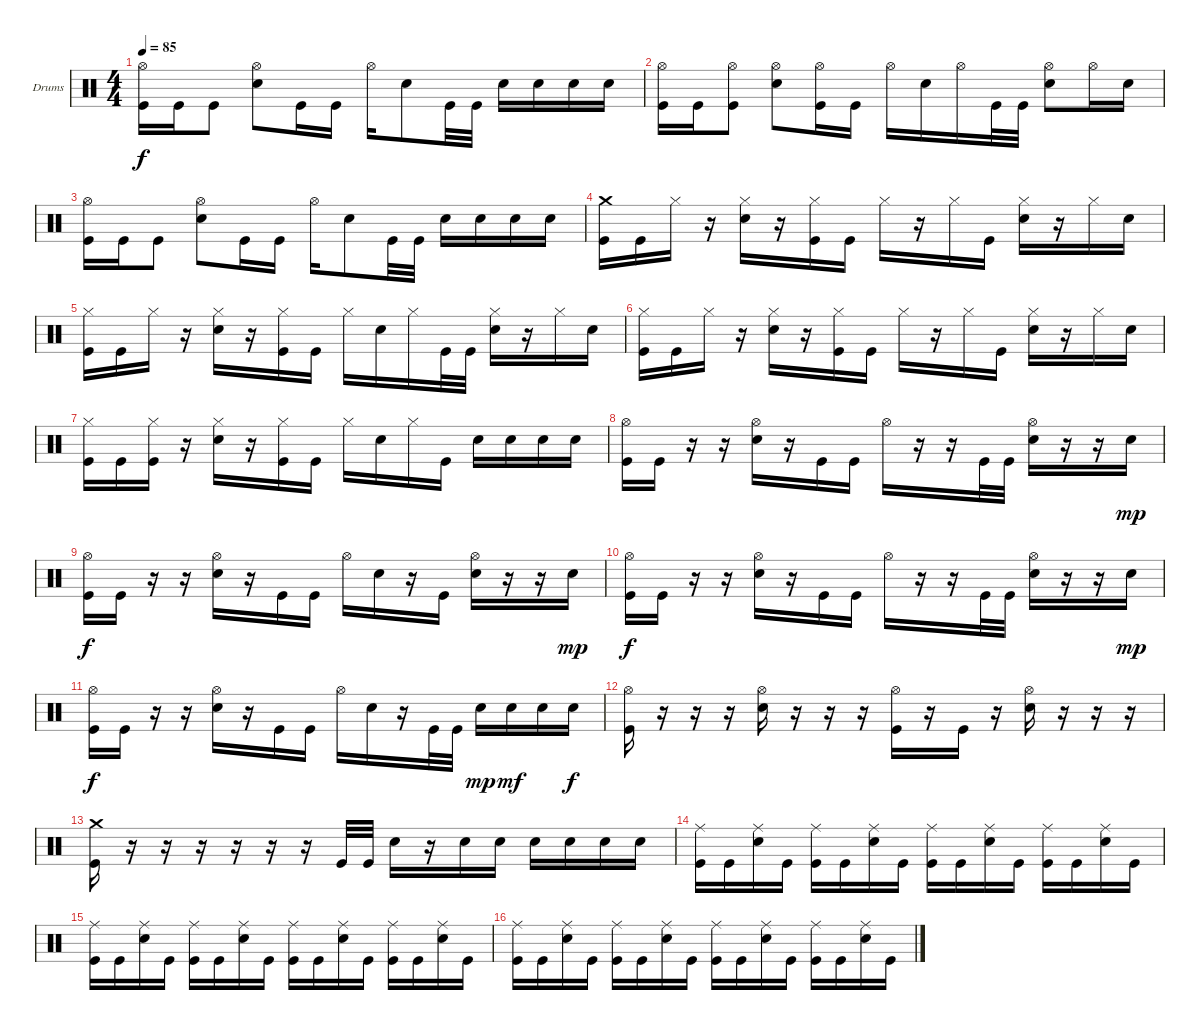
\defaultSystemsLayout 4
\bracketExtendMode groupsimilarinstruments
\firstSystemTrackNameOrientation horizontal
\otherSystemsTrackNameOrientation horizontal
\track ("Drumkit" "Drums") {instrument percussion}
\staff {score}
\articulation defaults
\ts (4 4)
\tempo 85
\clef neutral
\scale
0.333333
\ks c
("Hi-Hat (open)" "Kick (hit)").16{dy f} "Kick (hit)".16 "Kick (hit)".8 ("Hi-Hat (open)" "Snare (hit) 2").8 "Kick (hit)".16 "Kick (hit)".16 "Hi-Hat (open)".16 "Snare (hit) 2".8 "Kick (hit)".32 "Kick (hit)".32 "Snare (hit) 2".16 "Snare (hit) 2".16 "Snare (hit) 2".16 "Snare (hit) 2".16 |
\scale
0.333333 ("Hi-Hat (open)" "Kick (hit)").16 "Kick (hit)".16 ("Hi-Hat (open)" "Kick (hit)").8 ("Hi-Hat (open)" "Snare (hit) 2").8 ("Hi-Hat (open)" "Kick (hit)").16 "Kick (hit)".16 "Hi-Hat (open)".16 "Snare (hit) 2".16 "Hi-Hat (open)".16 "Kick (hit)".32 "Kick (hit)".32 ("Hi-Hat (open)" "Snare (hit) 2").8 "Hi-Hat (open)".16 "Snare (hit) 2".16 |
\scale
0.333333 ("Hi-Hat (open)" "Kick (hit)").16 "Kick (hit)".16 "Kick (hit)".8 ("Hi-Hat (open)" "Snare (hit) 2").8 "Kick (hit)".16 "Kick (hit)".16 "Hi-Hat (open)".16 "Snare (hit) 2".8 "Kick (hit)".32 "Kick (hit)".32 "Snare (hit) 2".16 "Snare (hit) 2".16 "Snare (hit) 2".16 "Snare (hit) 2".16 |
\scale
0.333333 ("Crash medium (hit)" "Kick (hit)").16 "Kick (hit)".16 "Hi-Hat (closed)".16 r.16 ("Hi-Hat (closed)" "Snare (hit) 2").16 r.16 ("Hi-Hat (closed)" "Kick (hit)").16 "Kick (hit)".16 "Hi-Hat (closed)".16 r.16 "Hi-Hat (closed)".16 "Kick (hit)".16 ("Hi-Hat (closed)" "Snare (hit) 2").16 r.16 "Hi-Hat (closed)".16 "Snare (hit) 2".16 |
\scale
0.333333 ("Hi-Hat (closed)" "Kick (hit)").16 "Kick (hit)".16 "Hi-Hat (closed)".16 r.16 ("Hi-Hat (closed)" "Snare (hit) 2").16 r.16 ("Hi-Hat (closed)" "Kick (hit)").16 "Kick (hit)".16 "Hi-Hat (closed)".16 "Snare (hit) 2".16 "Hi-Hat (closed)".16 "Kick (hit)".32 "Kick (hit)".32 ("Hi-Hat (closed)" "Snare (hit) 2").16 r.16 "Hi-Hat (closed)".16 "Snare (hit) 2".16 |
\scale
0.333333 ("Hi-Hat (closed)" "Kick (hit)").16 "Kick (hit)".16 "Hi-Hat (closed)".16 r.16 ("Hi-Hat (closed)" "Snare (hit) 2").16 r.16 ("Hi-Hat (closed)" "Kick (hit)").16 "Kick (hit)".16 "Hi-Hat (closed)".16 r.16 "Hi-Hat (closed)".16 "Kick (hit)".16 ("Hi-Hat (closed)" "Snare (hit) 2").16 r.16 "Hi-Hat (closed)".16 "Snare (hit) 2".16 |
\scale
0.333333 ("Hi-Hat (closed)" "Kick (hit)").16 "Kick (hit)".16 ("Hi-Hat (closed)" "Kick (hit)").16 r.16 ("Hi-Hat (closed)" "Snare (hit) 2").16 r.16 ("Hi-Hat (closed)" "Kick (hit)").16 "Kick (hit)".16 "Hi-Hat (closed)".16 "Snare (hit) 2".16 "Hi-Hat (closed)".16 "Kick (hit)".16 "Snare (hit) 2".16 "Snare (hit) 2".16 "Snare (hit) 2".16 "Snare (hit) 2".16 |
\scale
0.333333 ("Hi-Hat (open)" "Kick (hit)").16 "Kick (hit)".16 r.16 r.16 ("Hi-Hat (open)" "Snare (hit) 2").16 r.16 "Kick (hit)".16 "Kick (hit)".16 "Hi-Hat (open)".16 r.16 r.16 "Kick (hit)".32 "Kick (hit)".32 ("Hi-Hat (open)" "Snare (hit) 2").16 r.16 r.16 "Snare (hit) 2".16{dy mp} |
\scale
0.333333 ("Hi-Hat (open)" "Kick (hit)").16{dy f} "Kick (hit)".16 r.16 r.16 ("Hi-Hat (open)" "Snare (hit) 2").16 r.16 "Kick (hit)".16 "Kick (hit)".16 "Hi-Hat (open)".16 "Snare (hit) 2".16 r.16 "Kick (hit)".16 ("Hi-Hat (open)" "Snare (hit) 2").16 r.16 r.16 "Snare (hit) 2".16{dy mp} |
\scale
0.333333 ("Hi-Hat (open)" "Kick (hit)").16{dy f} "Kick (hit)".16 r.16 r.16 ("Hi-Hat (open)" "Snare (hit) 2").16 r.16 "Kick (hit)".16 "Kick (hit)".16 "Hi-Hat (open)".16 r.16 r.16 "Kick (hit)".32 "Kick (hit)".32 ("Hi-Hat (open)" "Snare (hit) 2").16 r.16 r.16 "Snare (hit) 2".16{dy mp} |
\scale
0.333333 ("Hi-Hat (open)" "Kick (hit)").16{dy f} "Kick (hit)".16 r.16 r.16 ("Hi-Hat (open)" "Snare (hit) 2").16 r.16 "Kick (hit)".16 "Kick (hit)".16 "Hi-Hat (open)".16 "Snare (hit) 2".16 r.16 "Kick (hit)".32 "Kick (hit)".32 "Snare (hit) 2".16{dy mp} "Snare (hit) 2".16{dy mf} "Snare (hit) 2".16 "Snare (hit) 2".16{dy f} |
\scale
0.333333 ("Hi-Hat (open)" "Kick (hit)").16 r.16 r.16 r.16 ("Hi-Hat (open)" "Snare (hit) 2").16 r.16 r.16 r.16 ("Hi-Hat (open)" "Kick (hit)").16 r.16 "Kick (hit)".16 r.16 ("Hi-Hat (open)" "Snare (hit) 2").16 r.16 r.16 r.16 |
\scale
0.333333 ("Crash medium (hit)" "Kick (hit)").16 r.16 r.16 r.16 r.16 r.16 r.16 "Kick (hit)".32 "Kick (hit)".32 "Snare (hit) 2".16 r.16 "Snare (hit) 2".16 "Snare (hit) 2".16 "Snare (hit) 2".16 "Snare (hit) 2".16 "Snare (hit) 2".16 "Snare (hit) 2".16 |
\scale
0.333333 ("Ride (middle)" "Kick (hit)").16 "Kick (hit)".16 ("Ride (middle)" "Snare (hit) 2").16 "Kick (hit)".16 ("Ride (middle)" "Kick (hit)").16 "Kick (hit)".16 ("Ride (middle)" "Snare (hit) 2").16 "Kick (hit)".16 ("Ride (middle)" "Kick (hit)").16 "Kick (hit)".16 ("Ride (middle)" "Snare (hit) 2").16 "Kick (hit)".16 ("Ride (middle)" "Kick (hit)").16 "Kick (hit)".16 ("Ride (middle)" "Snare (hit) 2").16 "Kick (hit)".16 |
\scale
0.333333 ("Ride (middle)" "Kick (hit)").16 "Kick (hit)".16 ("Ride (middle)" "Snare (hit) 2").16 "Kick (hit)".16 ("Ride (middle)" "Kick (hit)").16 "Kick (hit)".16 ("Ride (middle)" "Snare (hit) 2").16 "Kick (hit)".16 ("Ride (middle)" "Kick (hit)").16 "Kick (hit)".16 ("Ride (middle)" "Snare (hit) 2").16 "Kick (hit)".16 ("Ride (middle)" "Kick (hit)").16 "Kick (hit)".16 ("Ride (middle)" "Snare (hit) 2").16 "Kick (hit)".16 |
\scale
0.333333 ("Ride (middle)" "Kick (hit)").16 "Kick (hit)".16 ("Ride (middle)" "Snare (hit) 2").16 "Kick (hit)".16 ("Ride (middle)" "Kick (hit)").16 "Kick (hit)".16 ("Ride (middle)" "Snare (hit) 2").16 "Kick (hit)".16 ("Ride (middle)" "Kick (hit)").16 "Kick (hit)".16 ("Ride (middle)" "Snare (hit) 2").16 "Kick (hit)".16 ("Ride (middle)" "Kick (hit)").16 "Kick (hit)".16 ("Ride (middle)" "Snare (hit) 2").16 "Kick (hit)".16
